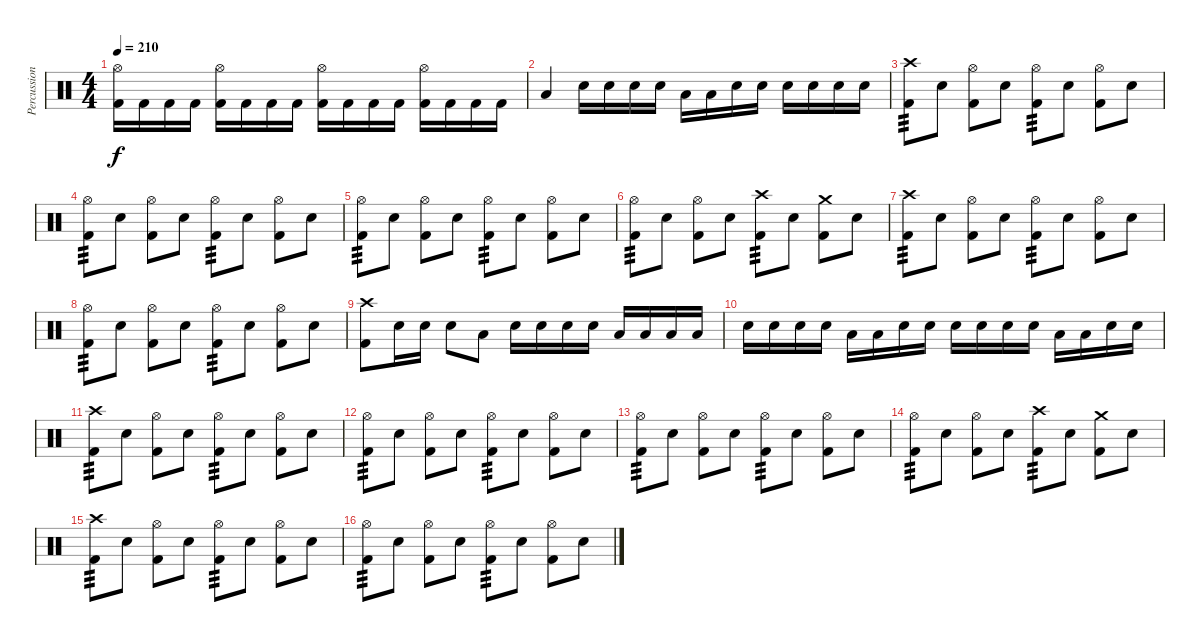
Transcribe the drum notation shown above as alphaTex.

\track ("Percussion" "Percussion") {instrument percussion}
\staff {score}
\articulation defaults
\ts (4 4)
\tempo 210
\clef neutral
\ks c
("Hi-Hat (open)" "Kick (hit) 2").16{dy f} "Kick (hit) 2".16 "Kick (hit) 2".16 "Kick (hit) 2".16 ("Hi-Hat (open)" "Kick (hit) 2").16 "Kick (hit) 2".16 "Kick (hit) 2".16 "Kick (hit) 2".16 ("Hi-Hat (open)" "Kick (hit) 2").16 "Kick (hit) 2".16 "Kick (hit) 2".16 "Kick (hit) 2".16 ("Hi-Hat (open)" "Kick (hit) 2").16 "Kick (hit) 2".16 "Kick (hit) 2".16 "Kick (hit) 2".16 |
"Low Floor Tom (hit)".4 "Electric Snare (hit)".16 "Electric Snare (hit)".16 "Electric Snare (hit)".16 "Electric Snare (hit)".16 "Low Floor Tom (hit)".16 "Low Floor Tom (hit)".16 "Electric Snare (hit)".16 "Electric Snare (hit)".16 "Electric Snare (hit)".16 "Electric Snare (hit)".16 "Electric Snare (hit)".16 "Electric Snare (hit)".16 |
("Crash high (hit)" "Kick (hit) 2").8{tp 3} "Electric Snare (hit)".8 ("Hi-Hat (open)" "Kick (hit) 2").8 "Electric Snare (hit)".8 ("Hi-Hat (open)" "Kick (hit) 2").8{tp 3} "Electric Snare (hit)".8 ("Hi-Hat (open)" "Kick (hit) 2").8 "Electric Snare (hit)".8 |
("Hi-Hat (open)" "Kick (hit) 2").8{tp 3} "Electric Snare (hit)".8 ("Hi-Hat (open)" "Kick (hit) 2").8 "Electric Snare (hit)".8 ("Hi-Hat (open)" "Kick (hit) 2").8{tp 3} "Electric Snare (hit)".8 ("Hi-Hat (open)" "Kick (hit) 2").8 "Electric Snare (hit)".8 |
("Hi-Hat (open)" "Kick (hit) 2").8{tp 3} "Electric Snare (hit)".8 ("Hi-Hat (open)" "Kick (hit) 2").8 "Electric Snare (hit)".8 ("Hi-Hat (open)" "Kick (hit) 2").8{tp 3} "Electric Snare (hit)".8 ("Hi-Hat (open)" "Kick (hit) 2").8 "Electric Snare (hit)".8 |
("Hi-Hat (open)" "Kick (hit) 2").8{tp 3} "Electric Snare (hit)".8 ("Hi-Hat (open)" "Kick (hit) 2").8 "Electric Snare (hit)".8 ("Crash high (hit)" "Kick (hit) 2").8{tp 3} "Electric Snare (hit)".8 ("Crash medium (hit)" "Kick (hit) 2").8 "Electric Snare (hit)".8 |
("Crash high (hit)" "Kick (hit) 2").8{tp 3} "Electric Snare (hit)".8 ("Hi-Hat (open)" "Kick (hit) 2").8 "Electric Snare (hit)".8 ("Hi-Hat (open)" "Kick (hit) 2").8{tp 3} "Electric Snare (hit)".8 ("Hi-Hat (open)" "Kick (hit) 2").8 "Electric Snare (hit)".8 |
("Hi-Hat (open)" "Kick (hit) 2").8{tp 3} "Electric Snare (hit)".8 ("Hi-Hat (open)" "Kick (hit) 2").8 "Electric Snare (hit)".8 ("Hi-Hat (open)" "Kick (hit) 2").8{tp 3} "Electric Snare (hit)".8 ("Hi-Hat (open)" "Kick (hit) 2").8 "Electric Snare (hit)".8 |
("Crash high (hit)" "Kick (hit) 2").8 "Electric Snare (hit)".16 "Electric Snare (hit)".16 "Electric Snare (hit)".8 "Low Floor Tom (hit)".8 "Electric Snare (hit)".16 "Electric Snare (hit)".16 "Electric Snare (hit)".16 "Electric Snare (hit)".16 "Low Floor Tom (hit)".16 "Low Floor Tom (hit)".16 "Low Floor Tom (hit)".16 "Low Floor Tom (hit)".16 |
"Electric Snare (hit)".16 "Electric Snare (hit)".16 "Electric Snare (hit)".16 "Electric Snare (hit)".16 "Low Floor Tom (hit)".16 "Low Floor Tom (hit)".16 "Electric Snare (hit)".16 "Electric Snare (hit)".16 "Electric Snare (hit)".16 "Electric Snare (hit)".16 "Electric Snare (hit)".16 "Electric Snare (hit)".16 "Low Floor Tom (hit)".16 "Low Floor Tom (hit)".16 "Electric Snare (hit)".16 "Electric Snare (hit)".16 |
("Crash high (hit)" "Kick (hit) 2").8{tp 3} "Electric Snare (hit)".8 ("Hi-Hat (open)" "Kick (hit) 2").8 "Electric Snare (hit)".8 ("Hi-Hat (open)" "Kick (hit) 2").8{tp 3} "Electric Snare (hit)".8 ("Hi-Hat (open)" "Kick (hit) 2").8 "Electric Snare (hit)".8 |
("Hi-Hat (open)" "Kick (hit) 2").8{tp 3} "Electric Snare (hit)".8 ("Hi-Hat (open)" "Kick (hit) 2").8 "Electric Snare (hit)".8 ("Hi-Hat (open)" "Kick (hit) 2").8{tp 3} "Electric Snare (hit)".8 ("Hi-Hat (open)" "Kick (hit) 2").8 "Electric Snare (hit)".8 |
("Hi-Hat (open)" "Kick (hit) 2").8{tp 3} "Electric Snare (hit)".8 ("Hi-Hat (open)" "Kick (hit) 2").8 "Electric Snare (hit)".8 ("Hi-Hat (open)" "Kick (hit) 2").8{tp 3} "Electric Snare (hit)".8 ("Hi-Hat (open)" "Kick (hit) 2").8 "Electric Snare (hit)".8 |
("Hi-Hat (open)" "Kick (hit) 2").8{tp 3} "Electric Snare (hit)".8 ("Hi-Hat (open)" "Kick (hit) 2").8 "Electric Snare (hit)".8 ("Crash high (hit)" "Kick (hit) 2").8{tp 3} "Electric Snare (hit)".8 ("Crash medium (hit)" "Kick (hit) 2").8 "Electric Snare (hit)".8 |
("Crash high (hit)" "Kick (hit) 2").8{tp 3} "Electric Snare (hit)".8 ("Hi-Hat (open)" "Kick (hit) 2").8 "Electric Snare (hit)".8 ("Hi-Hat (open)" "Kick (hit) 2").8{tp 3} "Electric Snare (hit)".8 ("Hi-Hat (open)" "Kick (hit) 2").8 "Electric Snare (hit)".8 |
("Hi-Hat (open)" "Kick (hit) 2").8{tp 3} "Electric Snare (hit)".8 ("Hi-Hat (open)" "Kick (hit) 2").8 "Electric Snare (hit)".8 ("Hi-Hat (open)" "Kick (hit) 2").8{tp 3} "Electric Snare (hit)".8 ("Hi-Hat (open)" "Kick (hit) 2").8 "Electric Snare (hit)".8
